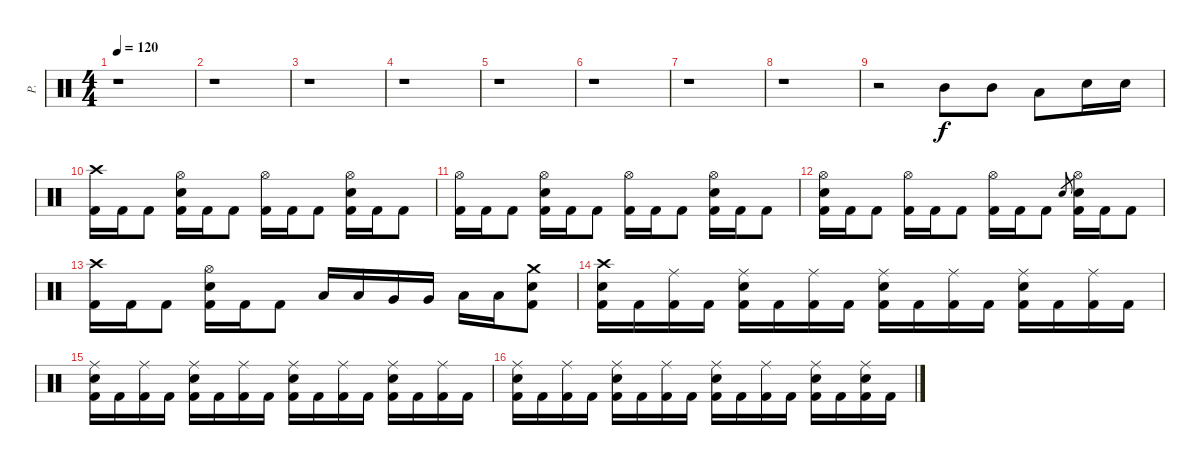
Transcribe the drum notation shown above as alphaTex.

\track ("P." "P.") {instrument percussion}
\staff {score}
\articulation defaults
\ts (4 4)
\tempo 120
\clef neutral
\ks c
r.1{dy f} |
r.1 |
r.1 |
r.1 |
r.1 |
r.1 |
r.1 |
r.1 |
r.2 "Mid Tom (hit)".8 "Mid Tom (hit)".8 "Low Tom (hit)".8 "Snare (hit) 2".16 "Snare (hit) 2".16 |
("Crash high (hit)" "Kick (hit) 2").16 "Kick (hit) 2".16 "Kick (hit) 2".8 ("Hi-Hat (open)" "Snare (hit) 2" "Kick (hit) 2").16 "Kick (hit) 2".16 "Kick (hit) 2".8 ("Hi-Hat (open)" "Kick (hit) 2").16 "Kick (hit) 2".16 "Kick (hit) 2".8 ("Hi-Hat (open)" "Snare (hit) 2" "Kick (hit) 2").16 "Kick (hit) 2".16 "Kick (hit) 2".8 |
("Hi-Hat (open)" "Kick (hit) 2").16 "Kick (hit) 2".16 "Kick (hit) 2".8 ("Hi-Hat (open)" "Snare (hit) 2" "Kick (hit) 2").16 "Kick (hit) 2".16 "Kick (hit) 2".8 ("Hi-Hat (open)" "Kick (hit) 2").16 "Kick (hit) 2".16 "Kick (hit) 2".8 ("Hi-Hat (open)" "Snare (hit) 2" "Kick (hit) 2").16 "Kick (hit) 2".16 "Kick (hit) 2".8 |
("Hi-Hat (open)" "Snare (hit) 2" "Kick (hit) 2").16 "Kick (hit) 2".16 "Kick (hit) 2".8 ("Hi-Hat (open)" "Kick (hit) 2").16 "Kick (hit) 2".16 "Kick (hit) 2".8 ("Hi-Hat (open)" "Kick (hit) 2").16 "Kick (hit) 2".16 "Kick (hit) 2".8 "Snare (hit) 2".8{gr} ("Hi-Hat (open)" "Snare (hit) 2" "Kick (hit) 2").16 "Kick (hit) 2".16 "Kick (hit) 2".8 |
("Crash high (hit)" "Kick (hit) 2").16 "Kick (hit) 2".16 "Kick (hit) 2".8 ("Hi-Hat (open)" "Snare (hit) 2" "Kick (hit) 2").16 "Kick (hit) 2".16 "Kick (hit) 2".8 "Low Tom (hit)".16 "Low Tom (hit)".16 "Very Low Tom (hit)".16 "Very Low Tom (hit)".16 "Low Floor Tom (hit)".16 "Low Floor Tom (hit)".16 ("Crash medium (hit)" "Snare (hit) 2" "Kick (hit) 2").8 |
("Crash high (hit)" "Snare (hit) 2" "Kick (hit) 2").16 "Kick (hit) 2".16 ("Ride (middle)" "Kick (hit) 2").16 "Kick (hit) 2".16 ("Ride (middle)" "Snare (hit) 2" "Kick (hit) 2").16 "Kick (hit) 2".16 ("Ride (middle)" "Kick (hit) 2").16 "Kick (hit) 2".16 ("Ride (middle)" "Snare (hit) 2" "Kick (hit) 2").16 "Kick (hit) 2".16 ("Ride (middle)" "Kick (hit) 2").16 "Kick (hit) 2".16 ("Ride (middle)" "Snare (hit) 2" "Kick (hit) 2").16 "Kick (hit) 2".16 ("Ride (middle)" "Kick (hit) 2").16 "Kick (hit) 2".16 |
("Ride (middle)" "Snare (hit) 2" "Kick (hit) 2").16 "Kick (hit) 2".16 ("Ride (middle)" "Kick (hit) 2").16 "Kick (hit) 2".16 ("Ride (middle)" "Snare (hit) 2" "Kick (hit) 2").16 "Kick (hit) 2".16 ("Ride (middle)" "Kick (hit) 2").16 "Kick (hit) 2".16 ("Ride (middle)" "Snare (hit) 2" "Kick (hit) 2").16 "Kick (hit) 2".16 ("Ride (middle)" "Kick (hit) 2").16 "Kick (hit) 2".16 ("Ride (middle)" "Snare (hit) 2" "Kick (hit) 2").16 "Kick (hit) 2".16 ("Ride (middle)" "Kick (hit) 2").16 "Kick (hit) 2".16 |
("Ride (middle)" "Snare (hit) 2" "Kick (hit) 2").16 "Kick (hit) 2".16 ("Ride (middle)" "Kick (hit) 2").16 "Kick (hit) 2".16 ("Ride (middle)" "Snare (hit) 2" "Kick (hit) 2").16 "Kick (hit) 2".16 ("Ride (middle)" "Kick (hit) 2").16 "Kick (hit) 2".16 ("Ride (middle)" "Snare (hit) 2" "Kick (hit) 2").16 "Kick (hit) 2".16 ("Ride (middle)" "Kick (hit) 2").16 "Kick (hit) 2".16 ("Ride (middle)" "Snare (hit) 2" "Kick (hit) 2").16 "Kick (hit) 2".16 ("Ride (middle)" "Snare (hit) 2" "Kick (hit) 2").16 "Kick (hit) 2".16
